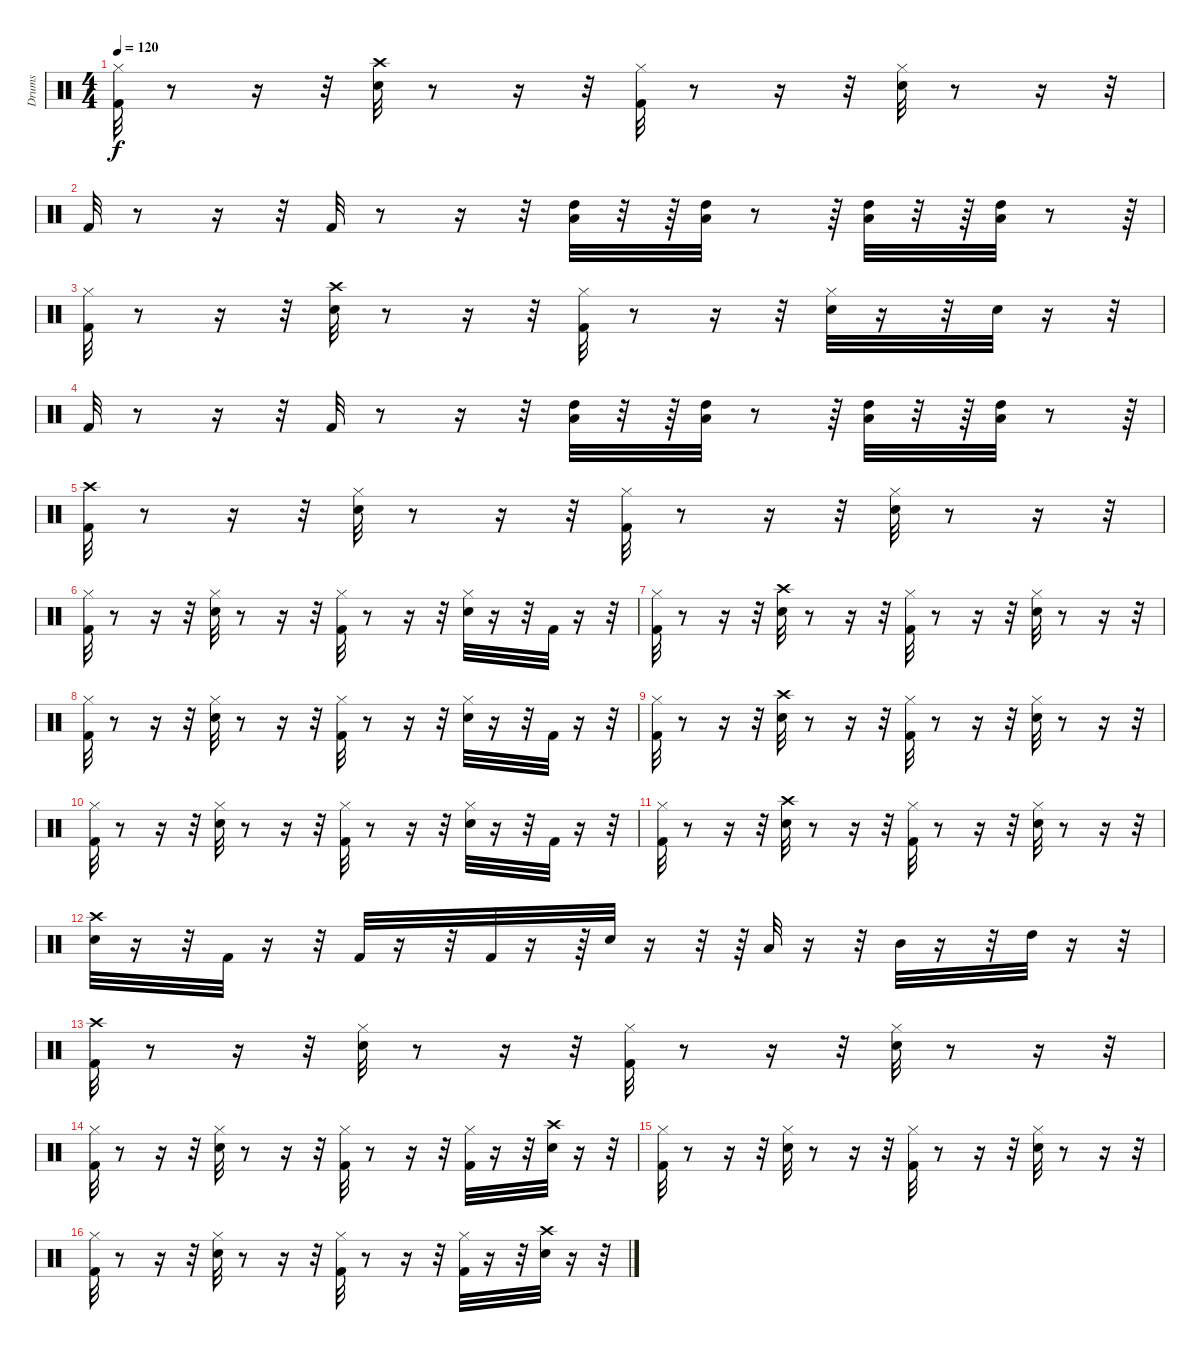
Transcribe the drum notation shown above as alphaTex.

\track ("Drums" "Drums") {instrument percussion}
\staff {score}
\articulation defaults
\ts (4 4)
\tempo 120
\clef neutral
\ks c
("Hi-Hat (closed)" "Kick (hit) 2").32{dy f} r.8 r.16 r.32 ("Snare (hit) 2" "Crash high (hit)").32 r.8 r.16 r.32 ("Kick (hit) 2" "Hi-Hat (closed)").32 r.8 r.16 r.32 ("Snare (hit) 2" "Hi-Hat (closed)").32 r.8 r.16 r.32 |
"Kick (hit) 2".32 r.8 r.16 r.32 "Kick (hit) 2".32 r.8 r.16 r.32 ("High Tom (hit)" "Low Tom (hit)").32 r.32 r.64 ("High Tom (hit)" "Low Tom (hit)").32 r.8 r.64 ("Low Tom (hit)" "High Tom (hit)").32 r.32 r.64 ("Low Tom (hit)" "High Tom (hit)").32 r.8 r.64 |
("Hi-Hat (closed)" "Kick (hit) 2").32 r.8 r.16 r.32 ("Snare (hit) 2" "Crash high (hit)").32 r.8 r.16 r.32 ("Kick (hit) 2" "Hi-Hat (closed)").32 r.8 r.16 r.32 ("Snare (hit) 2" "Hi-Hat (closed)").32 r.16 r.32 "Snare (hit) 2".32 r.16 r.32 |
"Kick (hit) 2".32 r.8 r.16 r.32 "Kick (hit) 2".32 r.8 r.16 r.32 ("High Tom (hit)" "Low Tom (hit)").32 r.32 r.64 ("High Tom (hit)" "Low Tom (hit)").32 r.8 r.64 ("Low Tom (hit)" "High Tom (hit)").32 r.32 r.64 ("Low Tom (hit)" "High Tom (hit)").32 r.8 r.64 |
("Kick (hit) 2" "Crash high (hit)").32 r.8 r.16 r.32 ("Hi-Hat (closed)" "Snare (hit) 2").32 r.8 r.16 r.32 ("Kick (hit) 2" "Hi-Hat (closed)").32 r.8 r.16 r.32 ("Snare (hit) 2" "Hi-Hat (closed)").32 r.8 r.16 r.32 |
("Kick (hit) 2" "Hi-Hat (closed)").32 r.8 r.16 r.32 ("Snare (hit) 2" "Hi-Hat (closed)").32 r.8 r.16 r.32 ("Kick (hit) 2" "Hi-Hat (closed)").32 r.8 r.16 r.32 ("Snare (hit) 2" "Hi-Hat (closed)").32 r.16 r.32 "Kick (hit) 2".32 r.16 r.32 |
("Kick (hit) 2" "Hi-Hat (closed)").32 r.8 r.16 r.32 ("Crash high (hit)" "Snare (hit) 2").32 r.8 r.16 r.32 ("Kick (hit) 2" "Hi-Hat (closed)").32 r.8 r.16 r.32 ("Snare (hit) 2" "Hi-Hat (closed)").32 r.8 r.16 r.32 |
("Kick (hit) 2" "Hi-Hat (closed)").32 r.8 r.16 r.32 ("Snare (hit) 2" "Hi-Hat (closed)").32 r.8 r.16 r.32 ("Kick (hit) 2" "Hi-Hat (closed)").32 r.8 r.16 r.32 ("Snare (hit) 2" "Hi-Hat (closed)").32 r.16 r.32 "Kick (hit) 2".32 r.16 r.32 |
("Kick (hit) 2" "Hi-Hat (closed)").32 r.8 r.16 r.32 ("Snare (hit) 2" "Crash high (hit)").32 r.8 r.16 r.32 ("Kick (hit) 2" "Hi-Hat (closed)").32 r.8 r.16 r.32 ("Snare (hit) 2" "Hi-Hat (closed)").32 r.8 r.16 r.32 |
("Kick (hit) 2" "Hi-Hat (closed)").32 r.8 r.16 r.32 ("Snare (hit) 2" "Hi-Hat (closed)").32 r.8 r.16 r.32 ("Kick (hit) 2" "Hi-Hat (closed)").32 r.8 r.16 r.32 ("Snare (hit) 2" "Hi-Hat (closed)").32 r.16 r.32 "Kick (hit) 2".32 r.16 r.32 |
("Kick (hit) 2" "Hi-Hat (closed)").32 r.8 r.16 r.32 ("Snare (hit) 2" "Crash high (hit)").32 r.8 r.16 r.32 ("Kick (hit) 2" "Hi-Hat (closed)").32 r.8 r.16 r.32 ("Snare (hit) 2" "Hi-Hat (closed)").32 r.8 r.16 r.32 |
("Snare (hit) 2" "Crash high (hit)").32 r.16 r.32 "Kick (hit) 2".32 r.16 r.32 "Kick (hit) 2".32 r.16 r.32 "Kick (hit) 2".32 r.16 r.64 "Snare (hit) 2".32 r.16 r.32 r.64 "Low Tom (hit)".32 r.16 r.32 "Mid Tom (hit)".32 r.16 r.32 "High Tom (hit)".32 r.16 r.32 |
("Crash high (hit)" "Kick (hit) 2").32 r.8 r.16 r.32 ("Hi-Hat (closed)" "Snare (hit) 2").32 r.8 r.16 r.32 ("Hi-Hat (closed)" "Kick (hit) 2").32 r.8 r.16 r.32 ("Hi-Hat (closed)" "Snare (hit) 2").32 r.8 r.16 r.32 |
("Kick (hit) 2" "Hi-Hat (closed)").32 r.8 r.16 r.32 ("Snare (hit) 2" "Hi-Hat (closed)").32 r.8 r.16 r.32 ("Kick (hit) 2" "Hi-Hat (closed)").32 r.8 r.16 r.32 ("Kick (hit) 2" "Hi-Hat (closed)").32 r.16 r.32 ("Snare (hit) 2" "Crash high (hit)").32 r.16 r.32 |
("Hi-Hat (closed)" "Kick (hit) 2").32 r.8 r.16 r.32 ("Hi-Hat (closed)" "Snare (hit) 2").32 r.8 r.16 r.32 ("Hi-Hat (closed)" "Kick (hit) 2").32 r.8 r.16 r.32 ("Hi-Hat (closed)" "Snare (hit) 2").32 r.8 r.16 r.32 |
("Kick (hit) 2" "Hi-Hat (closed)").32 r.8 r.16 r.32 ("Snare (hit) 2" "Hi-Hat (closed)").32 r.8 r.16 r.32 ("Kick (hit) 2" "Hi-Hat (closed)").32 r.8 r.16 r.32 ("Kick (hit) 2" "Hi-Hat (closed)").32 r.16 r.32 ("Snare (hit) 2" "Crash high (hit)").32 r.16 r.32
